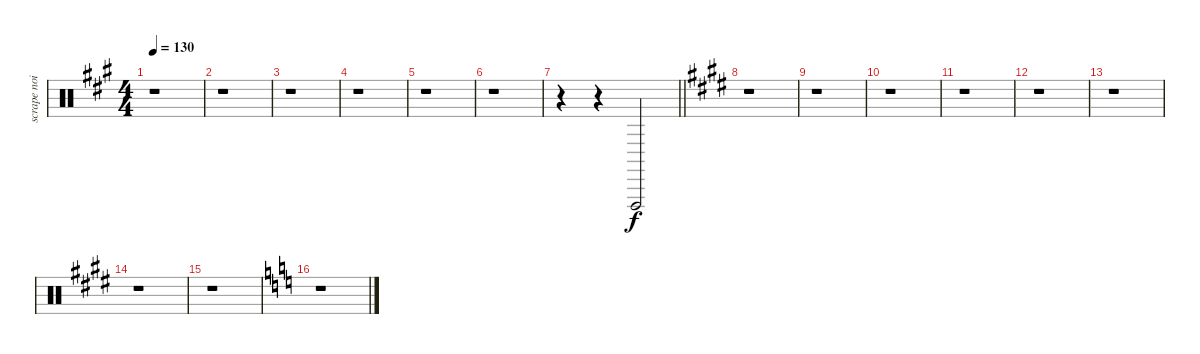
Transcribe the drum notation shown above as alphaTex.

\track ("scrape noise" "scrape noi") {instrument percussion}
\staff {score}
\articulation defaults
\ts (4 4)
\tempo 130
\clef neutral
\ks a
r.1{dy f} |
r.1 |
r.1 |
r.1 |
r.1 |
r.1 |
\barLineRight lightlight
r.4 r.4 "Vibraslap (hit)".2 |
\ks e
r.1 |
\ks c#minor
r.1 |
\ks e
r.1 |
\ks c#minor
r.1 |
r.1 |
r.1 |
\ks e
r.1 |
\ks c#minor
r.1 |
\ks c
r.1
